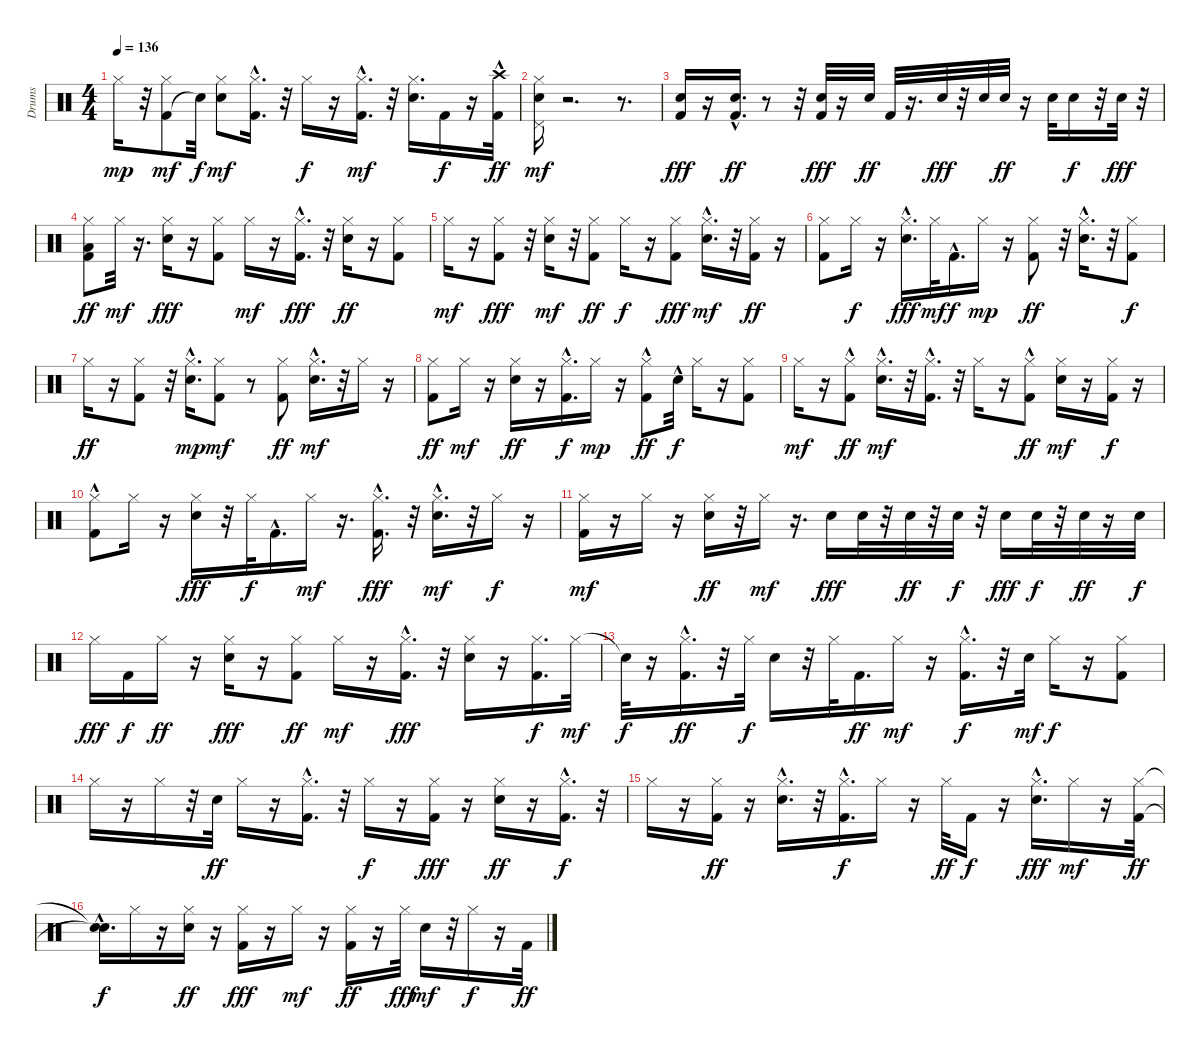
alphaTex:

\track ("Drums" "Drums") {instrument percussion}
\staff {score}
\articulation defaults
\ts (4 4)
\tempo 136
\clef neutral
\ks c "Hi-Hat (closed)".16{dy mp}
r.32 ("Kick (hit) 2" "Hi-Hat (closed)").8{dy mf} "Snare (hit)"{t}.32{dy f} ("Hi-Hat (closed)" "Snare (hit) 2").8{dy mf} ("Hi-Hat (closed)" "Kick (hit) 2"{hac}).16{d} r.32 "Hi-Hat (closed)".16{dy f} r.16 ("Kick (hit) 2"{hac} "Hi-Hat (closed)").16{d dy mf} r.32 ("Snare (hit) 2" "Hi-Hat (closed)").16{d} "Kick (hit) 2".16{dy f} r.16 ("Crash high (hit)"{hac} "Kick (hit) 2"{hac}).32{dy ff} |
("Hi-Hat (closed)" "Snare (hit) 2" "Pedal Hi-Hat (hit)").16{dy mf} r.2{d} r.8{d} |
("Kick (hit) 2" "Snare (hit) 2").16{dy fff} r.16 ("Kick (hit) 2"{hac} "Snare (hit) 2"{hac}).16{d dy ff} r.8 r.32 ("Kick (hit) 2" "Snare (hit) 2").32{dy fff} r.16 "Snare (hit) 2".32{dy ff} "Kick (hit) 2".32 r.16{d} "Snare (hit) 2".32{dy fff} r.32 "Snare (hit) 2".32 "Snare (hit) 2".32{dy ff} r.16 "Snare (hit) 2".32 "Snare (hit) 2".16{dy f} r.32 "Snare (hit) 2".32{dy fff} r.32 |
("Hi-Hat (closed)" "Low Floor Tom (hit)" "Kick (hit) 2").8{dy ff} "Hi-Hat (closed)".32{dy mf} r.16{d} ("Snare (hit) 2" "Hi-Hat (closed)").16{dy fff} r.16 ("Kick (hit) 2" "Hi-Hat (closed)").8 "Hi-Hat (closed)".16{dy mf} r.16 ("Kick (hit) 2"{hac} "Hi-Hat (closed)").16{d dy fff} r.32 ("Snare (hit) 2" "Hi-Hat (closed)").16{dy ff} r.16 ("Kick (hit) 2" "Hi-Hat (closed)").8 |
"Hi-Hat (closed)".16{dy mf} r.16 ("Kick (hit) 2" "Hi-Hat (closed)").8{dy fff} r.32 ("Hi-Hat (closed)" "Snare (hit) 2").16{dy mf} r.32 ("Kick (hit) 2" "Hi-Hat (closed)").8{dy ff} "Hi-Hat (closed)".16{dy f} r.16 ("Kick (hit) 2" "Hi-Hat (closed)").8{dy fff} ("Snare (hit) 2"{hac} "Hi-Hat (closed)").16{d dy mf} r.32 ("Kick (hit) 2" "Hi-Hat (closed)").16{dy ff} r.16 |
("Hi-Hat (closed)" "Kick (hit) 2").8 "Hi-Hat (closed)".16{dy f} r.16 ("Hi-Hat (closed)" "Snare (hit) 2"{hac}).16{d dy fff} "Hi-Hat (closed)".32{dy mf} "Kick (hit) 2"{hac}.16{d dy f} "Hi-Hat (closed)".16{dy mp} r.16 ("Kick (hit) 2" "Hi-Hat (closed)").8{dy ff} r.32 ("Snare (hit) 2"{hac} "Hi-Hat (closed)").16{d} r.32 ("Kick (hit) 2" "Hi-Hat (closed)").8{dy f} |
"Hi-Hat (closed)".16{dy ff} r.16 ("Kick (hit) 2" "Hi-Hat (closed)").8 r.32 ("Snare (hit) 2"{hac} "Hi-Hat (closed)").16{d dy mp} ("Kick (hit) 2" "Hi-Hat (closed)").8{dy mf} r.8 ("Kick (hit) 2" "Hi-Hat (closed)").8{dy ff} ("Hi-Hat (closed)" "Snare (hit) 2"{hac}).16{d dy mf} r.32 "Hi-Hat (closed)".16 r.16 |
("Hi-Hat (closed)" "Kick (hit) 2").8{dy ff} "Hi-Hat (closed)".16{dy mf} r.16 ("Snare (hit) 2" "Hi-Hat (closed)").16{dy ff} r.16 ("Kick (hit) 2"{hac} "Hi-Hat (closed)").16{d dy f} "Hi-Hat (closed)".16{dy mp} r.16 ("Kick (hit) 2" "Hi-Hat (closed)"{hac}).8{dy ff} "Snare (hit) 2"{hac}.32{dy f} "Hi-Hat (closed)".16 r.16 ("Hi-Hat (closed)" "Kick (hit) 2").8 |
"Hi-Hat (closed)".16{dy mf} r.16 ("Kick (hit) 2" "Hi-Hat (closed)"{hac}).8{dy ff} ("Snare (hit) 2"{hac} "Hi-Hat (closed)").16{d dy mf} r.32 ("Kick (hit) 2"{hac} "Hi-Hat (closed)").16{d} r.32 "Hi-Hat (closed)".16 r.16 ("Hi-Hat (closed)"{hac} "Kick (hit) 2").8{dy ff} ("Snare (hit) 2" "Hi-Hat (closed)").16{dy mf} r.16 ("Kick (hit) 2" "Hi-Hat (closed)").16{dy f} r.16 |
("Hi-Hat (closed)" "Kick (hit) 2"{hac}).8 "Hi-Hat (closed)".16 r.16 ("Hi-Hat (closed)" "Snare (hit) 2").16{dy fff} r.32 "Hi-Hat (closed)".32{dy f} "Kick (hit) 2"{hac}.16{d} "Hi-Hat (closed)".16{dy mf} r.16{d} ("Kick (hit) 2"{hac} "Hi-Hat (closed)").16{d dy fff} r.32 ("Hi-Hat (closed)" "Snare (hit) 2"{hac}).16{d dy mf} r.32 "Hi-Hat (closed)".16{dy f} r.16 |
("Hi-Hat (closed)" "Kick (hit) 2").16{dy mf} r.16 "Hi-Hat (closed)".16 r.16 ("Hi-Hat (closed)" "Snare (hit) 2").16{dy ff} r.32 "Hi-Hat (closed)".16{dy mf} r.16{d} "Snare (hit) 2".16{dy fff} "Snare (hit) 2".32 r.32 "Snare (hit) 2".32{dy ff} r.32 "Snare (hit) 2".32{dy f} r.32 "Snare (hit) 2".16{dy fff} "Snare (hit) 2".32{dy f} r.32 "Snare (hit) 2".32{dy ff} r.16 "Snare (hit) 2".32{dy f} |
"Hi-Hat (closed)".16{dy fff} "Kick (hit) 2".16{dy f} "Hi-Hat (closed)".16{dy ff} r.16 ("Snare (hit) 2" "Hi-Hat (closed)").16{dy fff} r.16 ("Kick (hit) 2" "Hi-Hat (closed)").8{dy ff} "Hi-Hat (closed)".16{dy mf} r.16 ("Kick (hit) 2"{hac} "Hi-Hat (closed)").16{d dy fff} r.32 ("Snare (hit) 2" "Hi-Hat (closed)").16 r.16 ("Hi-Hat (closed)" "Kick (hit) 2").16{d dy f} "Hi-Hat (closed)".32{dy mf} |
"Snare (hit)"{t}.32{dy f} r.16 ("Hi-Hat (closed)" "Kick (hit) 2"{hac}).16{d dy ff} r.32 "Hi-Hat (closed)".32{dy f} "Snare (hit) 2".16 r.32 "Hi-Hat (closed)".32 "Kick (hit) 2".16{d dy ff} "Hi-Hat (closed)".16{dy mf} r.16 ("Hi-Hat (closed)"{hac} "Kick (hit) 2"{hac}).16{d dy f} r.32 "Snare (hit) 2".32{dy mf} "Hi-Hat (closed)".16{dy f} r.16 ("Hi-Hat (closed)" "Kick (hit) 2").8 |
"Hi-Hat (closed)".16 r.16 "Hi-Hat (closed)".16 r.32 "Snare (hit) 2".32{dy ff} "Hi-Hat (closed)".16 r.16 ("Kick (hit) 2"{hac} "Hi-Hat (closed)").16{d} r.32 "Hi-Hat (closed)".16{dy f} r.16 ("Kick (hit) 2" "Hi-Hat (closed)").16{dy fff} r.16 ("Hi-Hat (closed)" "Snare (hit) 2").16{dy ff} r.16 ("Hi-Hat (closed)" "Kick (hit) 2"{hac}).16{d dy f} r.32 |
"Hi-Hat (closed)".16 r.16 ("Hi-Hat (closed)" "Kick (hit) 2").16{dy ff} r.16 ("Snare (hit) 2"{hac} "Hi-Hat (closed)").16{d} r.32 ("Kick (hit) 2"{hac} "Hi-Hat (closed)").16{d dy f} "Hi-Hat (closed)".16 r.16 "Hi-Hat (closed)".32{dy ff} "Kick (hit) 2".16{dy f} r.16 ("Snare (hit) 2"{hac} "Hi-Hat (closed)").16{d dy fff} "Hi-Hat (closed)".16{dy mf} r.16 ("Hi-Hat (closed)" "Kick (hit) 2").32{dy ff} |
("Snare (hit)"{t} "Snare (hit)"{hac t}).16{d dy f} "Hi-Hat (closed)".16 r.16 ("Snare (hit) 2" "Hi-Hat (closed)").16{dy ff} r.16 ("Kick (hit) 2" "Hi-Hat (closed)").16{dy fff} r.16 "Hi-Hat (closed)".16{dy mf} r.16 ("Kick (hit) 2" "Hi-Hat (closed)").16{dy ff} r.16 "Hi-Hat (closed)".32{dy fff} "Snare (hit) 2".16{dy mf} r.32 "Hi-Hat (closed)".16{dy f} r.16 "Kick (hit) 2".32{dy ff}
